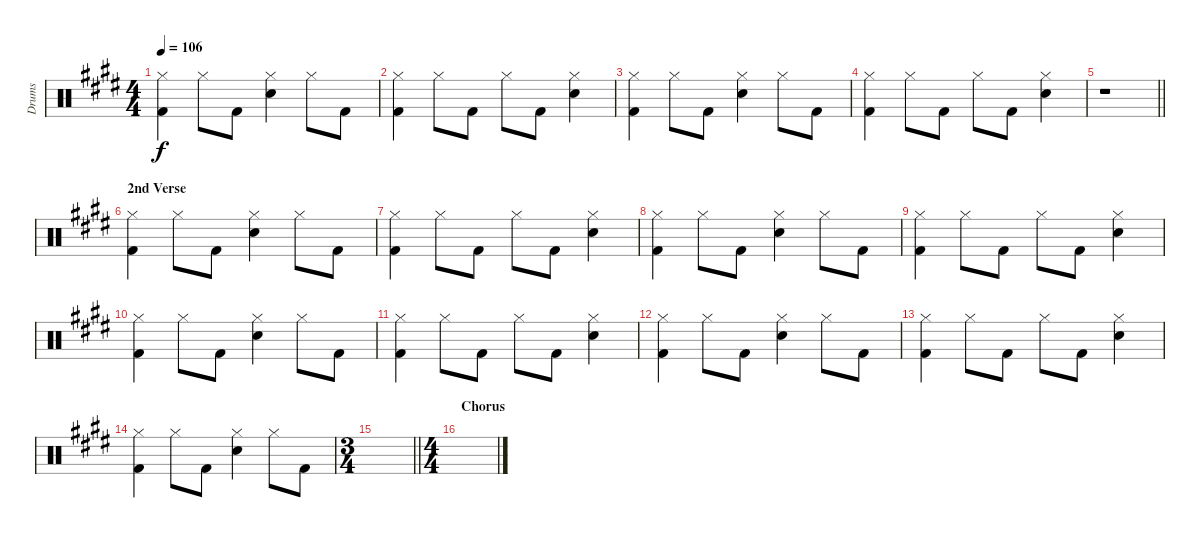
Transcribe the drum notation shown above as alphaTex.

\track ("Drums" "Drums") {instrument percussion}
\staff {score}
\articulation defaults
\ts (4 4)
\tempo 106
\clef neutral
\ks e
("Hi-Hat (closed)" "Kick (hit) 2").4{dy f} "Hi-Hat (closed)".8 "Kick (hit) 2".8 ("Hi-Hat (closed)" "Snare (hit) 2").4 "Hi-Hat (closed)".8 "Kick (hit) 2".8 |
("Hi-Hat (closed)" "Kick (hit) 2").4 "Hi-Hat (closed)".8 "Kick (hit) 2".8 "Hi-Hat (closed)".8 "Kick (hit) 2".8 ("Hi-Hat (closed)" "Snare (hit) 2").4 |
("Hi-Hat (closed)" "Kick (hit) 2").4 "Hi-Hat (closed)".8 "Kick (hit) 2".8 ("Hi-Hat (closed)" "Snare (hit) 2").4 "Hi-Hat (closed)".8 "Kick (hit) 2".8 |
("Hi-Hat (closed)" "Kick (hit) 2").4 "Hi-Hat (closed)".8 "Kick (hit) 2".8 "Hi-Hat (closed)".8 "Kick (hit) 2".8 ("Hi-Hat (closed)" "Snare (hit) 2").4 |
\barLineRight lightlight
r.1 |
\section ("" "2nd Verse")
("Hi-Hat (closed)" "Kick (hit) 2").4 "Hi-Hat (closed)".8 "Kick (hit) 2".8 ("Hi-Hat (closed)" "Snare (hit) 2").4 "Hi-Hat (closed)".8 "Kick (hit) 2".8 |
("Hi-Hat (closed)" "Kick (hit) 2").4 "Hi-Hat (closed)".8 "Kick (hit) 2".8 "Hi-Hat (closed)".8 "Kick (hit) 2".8 ("Hi-Hat (closed)" "Snare (hit) 2").4 |
("Hi-Hat (closed)" "Kick (hit) 2").4 "Hi-Hat (closed)".8 "Kick (hit) 2".8 ("Hi-Hat (closed)" "Snare (hit) 2").4 "Hi-Hat (closed)".8 "Kick (hit) 2".8 |
("Hi-Hat (closed)" "Kick (hit) 2").4 "Hi-Hat (closed)".8 "Kick (hit) 2".8 "Hi-Hat (closed)".8 "Kick (hit) 2".8 ("Hi-Hat (closed)" "Snare (hit) 2").4 |
("Hi-Hat (closed)" "Kick (hit) 2").4 "Hi-Hat (closed)".8 "Kick (hit) 2".8 ("Hi-Hat (closed)" "Snare (hit) 2").4 "Hi-Hat (closed)".8 "Kick (hit) 2".8 |
("Hi-Hat (closed)" "Kick (hit) 2").4 "Hi-Hat (closed)".8 "Kick (hit) 2".8 "Hi-Hat (closed)".8 "Kick (hit) 2".8 ("Hi-Hat (closed)" "Snare (hit) 2").4 |
("Hi-Hat (closed)" "Kick (hit) 2").4 "Hi-Hat (closed)".8 "Kick (hit) 2".8 ("Hi-Hat (closed)" "Snare (hit) 2").4 "Hi-Hat (closed)".8 "Kick (hit) 2".8 |
("Hi-Hat (closed)" "Kick (hit) 2").4 "Hi-Hat (closed)".8 "Kick (hit) 2".8 "Hi-Hat (closed)".8 "Kick (hit) 2".8 ("Hi-Hat (closed)" "Snare (hit) 2").4 |
("Hi-Hat (closed)" "Kick (hit) 2").4 "Hi-Hat (closed)".8 "Kick (hit) 2".8 ("Hi-Hat (closed)" "Snare (hit) 2").4 "Hi-Hat (closed)".8 "Kick (hit) 2".8 |
\ts (3 4)
\barLineRight lightlight
|
\ts (4 4)
\section ("" "Chorus")
